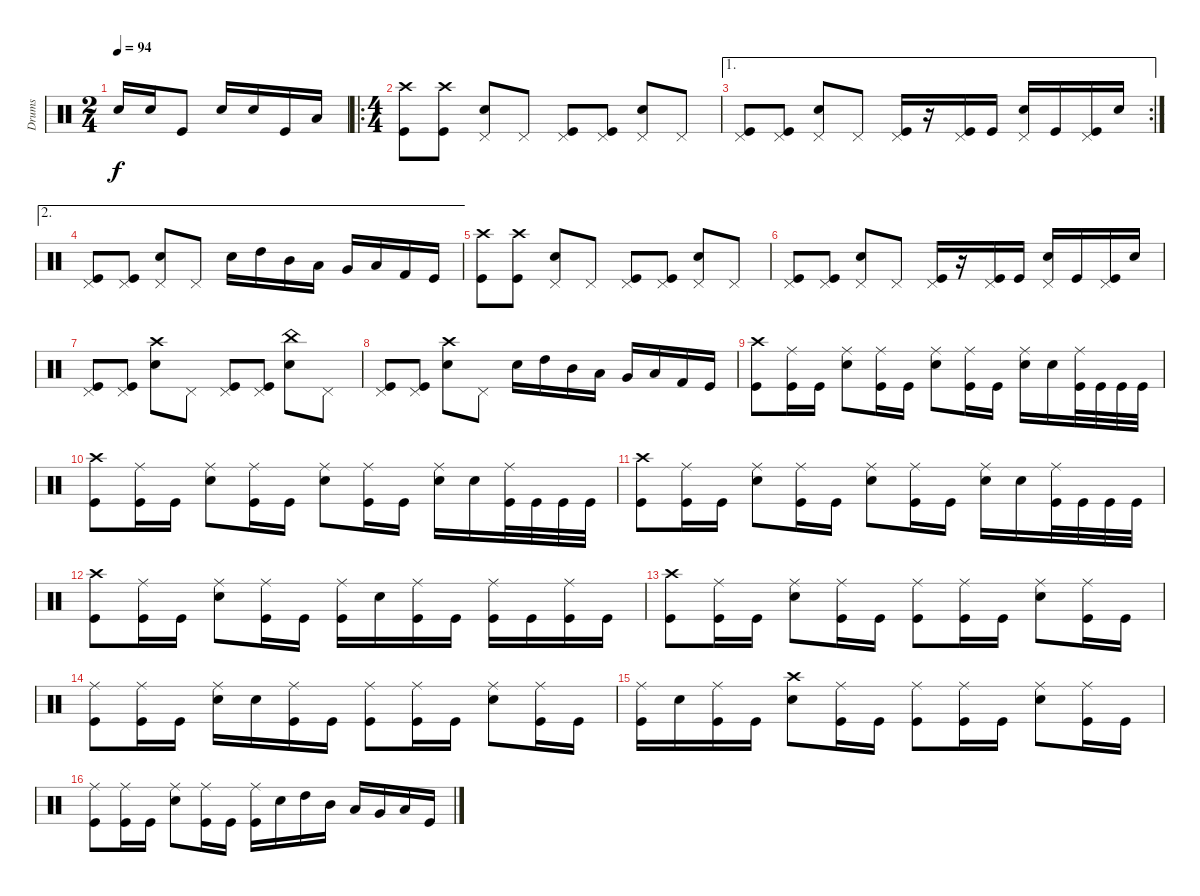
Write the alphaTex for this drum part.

\track ("Drums" "Drums") {instrument percussion}
\staff {score}
\articulation defaults
\ts (2 4)
\tempo 94
\clef neutral
\ks c "Electric Snare (hit)".16{dy f} "Electric Snare (hit)".16 "Kick (hit)".8 "Electric Snare (hit)".16 "Electric Snare (hit)".16 "Kick (hit)".16 "Low Floor Tom (hit)".16
|
\ro
\ts (4 4)
("Crash high (hit)" "Kick (hit)").8 ("Crash high (hit)" "Kick (hit)").8 ("Pedal Hi-Hat (hit)" "Electric Snare (hit)").8 "Pedal Hi-Hat (hit)".8 ("Pedal Hi-Hat (hit)" "Kick (hit)").8 ("Pedal Hi-Hat (hit)" "Kick (hit)").8 ("Pedal Hi-Hat (hit)" "Electric Snare (hit)").8 "Pedal Hi-Hat (hit)".8 |
\ae 1
\rc 2
("Pedal Hi-Hat (hit)" "Kick (hit)").8 ("Pedal Hi-Hat (hit)" "Kick (hit)").8 ("Pedal Hi-Hat (hit)" "Electric Snare (hit)").8 "Pedal Hi-Hat (hit)".8 ("Pedal Hi-Hat (hit)" "Kick (hit)").16 r.16 ("Pedal Hi-Hat (hit)" "Kick (hit)").16 "Kick (hit)".16 ("Pedal Hi-Hat (hit)" "Electric Snare (hit)").16 "Kick (hit)".16 ("Pedal Hi-Hat (hit)" "Kick (hit)").16 "Electric Snare (hit)".16 |
\ae 2
("Pedal Hi-Hat (hit)" "Kick (hit)").8 ("Pedal Hi-Hat (hit)" "Kick (hit)").8 ("Pedal Hi-Hat (hit)" "Electric Snare (hit)").8 "Pedal Hi-Hat (hit)".8 "Electric Snare (hit)".16 "High Tom (hit)".16 "Mid Tom (hit)".16 "Low Tom (hit)".16 "Very Low Tom (hit)".16 "Low Floor Tom (hit)".16 "Kick (hit) 2".16 "Kick (hit)".16 |
("Crash high (hit)" "Kick (hit)").8 ("Crash high (hit)" "Kick (hit)").8 ("Pedal Hi-Hat (hit)" "Electric Snare (hit)").8 "Pedal Hi-Hat (hit)".8 ("Pedal Hi-Hat (hit)" "Kick (hit)").8 ("Pedal Hi-Hat (hit)" "Kick (hit)").8 ("Pedal Hi-Hat (hit)" "Electric Snare (hit)").8 "Pedal Hi-Hat (hit)".8 |
("Pedal Hi-Hat (hit)" "Kick (hit)").8 ("Pedal Hi-Hat (hit)" "Kick (hit)").8 ("Pedal Hi-Hat (hit)" "Electric Snare (hit)").8 "Pedal Hi-Hat (hit)".8 ("Pedal Hi-Hat (hit)" "Kick (hit)").16 r.16 ("Pedal Hi-Hat (hit)" "Kick (hit)").16 "Kick (hit)".16 ("Pedal Hi-Hat (hit)" "Electric Snare (hit)").16 "Kick (hit)".16 ("Pedal Hi-Hat (hit)" "Kick (hit)").16 "Electric Snare (hit)".16 |
("Pedal Hi-Hat (hit)" "Kick (hit)").8 ("Pedal Hi-Hat (hit)" "Kick (hit)").8 ("Crash high (hit)" "Electric Snare (hit)").8 "Pedal Hi-Hat (hit)".8 ("Pedal Hi-Hat (hit)" "Kick (hit)").8 ("Pedal Hi-Hat (hit)" "Kick (hit)").8 ("China (hit)" "Electric Snare (hit)").8 "Pedal Hi-Hat (hit)".8 |
("Pedal Hi-Hat (hit)" "Kick (hit)").8 ("Pedal Hi-Hat (hit)" "Kick (hit)").8 ("Crash high (hit)" "Electric Snare (hit)").8 "Pedal Hi-Hat (hit)".8 "Electric Snare (hit)".16 "High Tom (hit)".16 "Mid Tom (hit)".16 "Low Tom (hit)".16 "Very Low Tom (hit)".16 "Low Floor Tom (hit)".16 "Kick (hit) 2".16 "Kick (hit)".16 |
("Crash high (hit)" "Kick (hit)").8 ("Ride (middle)" "Kick (hit)").16 "Kick (hit)".16 ("Ride (middle)" "Electric Snare (hit)").8 ("Ride (middle)" "Kick (hit)").16 "Kick (hit)".16 ("Ride (middle)" "Electric Snare (hit)").8 ("Ride (middle)" "Kick (hit)").16 "Kick (hit)".16 ("Ride (middle)" "Electric Snare (hit)").16 "Electric Snare (hit)".16 ("Ride (middle)" "Kick (hit)").32 "Kick (hit)".32 "Kick (hit)".32 "Kick (hit)".32 |
("Crash high (hit)" "Kick (hit)").8 ("Ride (middle)" "Kick (hit)").16 "Kick (hit)".16 ("Ride (middle)" "Electric Snare (hit)").8 ("Ride (middle)" "Kick (hit)").16 "Kick (hit)".16 ("Ride (middle)" "Electric Snare (hit)").8 ("Ride (middle)" "Kick (hit)").16 "Kick (hit)".16 ("Ride (middle)" "Electric Snare (hit)").16 "Electric Snare (hit)".16 ("Ride (middle)" "Kick (hit)").32 "Kick (hit)".32 "Kick (hit)".32 "Kick (hit)".32 |
("Crash high (hit)" "Kick (hit)").8 ("Ride (middle)" "Kick (hit)").16 "Kick (hit)".16 ("Ride (middle)" "Electric Snare (hit)").8 ("Ride (middle)" "Kick (hit)").16 "Kick (hit)".16 ("Ride (middle)" "Electric Snare (hit)").8 ("Ride (middle)" "Kick (hit)").16 "Kick (hit)".16 ("Ride (middle)" "Electric Snare (hit)").16 "Electric Snare (hit)".16 ("Ride (middle)" "Kick (hit)").32 "Kick (hit)".32 "Kick (hit)".32 "Kick (hit)".32 |
("Crash high (hit)" "Kick (hit)").8 ("Ride (middle)" "Kick (hit)").16 "Kick (hit)".16 ("Ride (middle)" "Electric Snare (hit)").8 ("Ride (middle)" "Kick (hit)").16 "Kick (hit)".16 ("Ride (middle)" "Kick (hit)").16 "Electric Snare (hit)".16 ("Ride (middle)" "Kick (hit)").16 "Kick (hit)".16 ("Ride (middle)" "Kick (hit)").16 "Kick (hit)".16 ("Ride (middle)" "Kick (hit)").16 "Kick (hit)".16 |
("Crash high (hit)" "Kick (hit)").8 ("Ride (middle)" "Kick (hit)").16 "Kick (hit)".16 ("Ride (middle)" "Electric Snare (hit)").8 ("Ride (middle)" "Kick (hit)").16 "Kick (hit)".16 ("Ride (middle)" "Kick (hit)").8 ("Ride (middle)" "Kick (hit)").16 "Kick (hit)".16 ("Ride (middle)" "Electric Snare (hit)").8 ("Ride (middle)" "Kick (hit)").16 "Kick (hit)".16 |
("Ride (middle)" "Kick (hit)").8 ("Ride (middle)" "Kick (hit)").16 "Kick (hit)".16 ("Ride (middle)" "Electric Snare (hit)").16 "Electric Snare (hit)".16 ("Ride (middle)" "Kick (hit)").16 "Kick (hit)".16 ("Ride (middle)" "Kick (hit)").8 ("Ride (middle)" "Kick (hit)").16 "Kick (hit)".16 ("Ride (middle)" "Electric Snare (hit)").8 ("Ride (middle)" "Kick (hit)").16 "Kick (hit)".16 |
("Ride (middle)" "Kick (hit)").16 "Electric Snare (hit)".16 ("Ride (middle)" "Kick (hit)").16 "Kick (hit)".16 ("Crash high (hit)" "Electric Snare (hit)").8 ("Ride (middle)" "Kick (hit)").16 "Kick (hit)".16 ("Ride (middle)" "Kick (hit)").8 ("Ride (middle)" "Kick (hit)").16 "Kick (hit)".16 ("Ride (middle)" "Electric Snare (hit)").8 ("Ride (middle)" "Kick (hit)").16 "Kick (hit)".16 |
("Ride (middle)" "Kick (hit)").8 ("Ride (middle)" "Kick (hit)").16 "Kick (hit)".16 ("Ride (middle)" "Electric Snare (hit)").8 ("Ride (middle)" "Kick (hit)").16 "Kick (hit)".16 ("Ride (middle)" "Kick (hit)").16 "Electric Snare (hit)".16 "High Tom (hit)".16 "Mid Tom (hit)".16 "Low Tom (hit)".16 "Very Low Tom (hit)".16 "Low Floor Tom (hit)".16 "Kick (hit)".16
